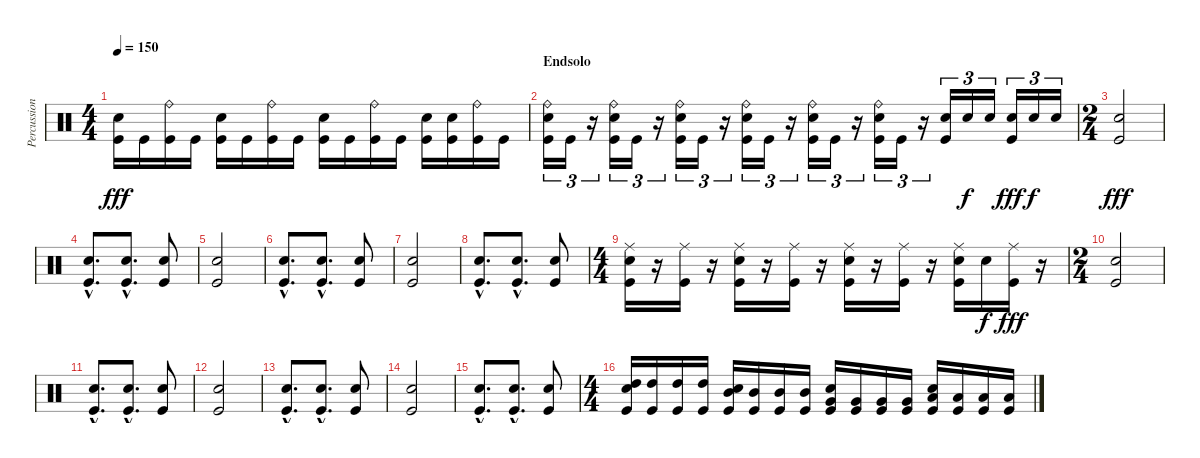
\track ("Percussions" "Percussion") {instrument percussion}
\staff {score}
\articulation defaults
\ts (4 4)
\tempo 150
\clef neutral
\ks c
("Snare (hit) 2" "Kick (hit)").16{dy fff} "Kick (hit)".16 ("Ride (bell)" "Kick (hit)").16 "Kick (hit)".16 ("Snare (hit) 2" "Kick (hit)").16 "Kick (hit)".16 ("Ride (bell)" "Kick (hit)").16 "Kick (hit)".16 ("Snare (hit) 2" "Kick (hit)").16 "Kick (hit)".16 ("Ride (bell)" "Kick (hit)").16 "Kick (hit)".16 ("Snare (hit) 2" "Kick (hit)").16 ("Snare (hit) 2" "Kick (hit)").16 ("Ride (bell)" "Kick (hit)").16 "Kick (hit)".16 |
\section ("" "Endsolo")
("Ride (bell)" "Snare (hit) 2" "Kick (hit)").16{tu (3 2)} "Kick (hit)".16{tu (3 2)} r.16{tu (3 2)} ("Ride (bell)" "Snare (hit) 2" "Kick (hit)").16{tu (3 2)} "Kick (hit)".16{tu (3 2)} r.16{tu (3 2)} ("Ride (bell)" "Snare (hit) 2" "Kick (hit)").16{tu (3 2)} "Kick (hit)".16{tu (3 2)} r.16{tu (3 2)} ("Ride (bell)" "Snare (hit) 2" "Kick (hit)").16{tu (3 2)} "Kick (hit)".16{tu (3 2)} r.16{tu (3 2)} ("Ride (bell)" "Snare (hit) 2" "Kick (hit)").16{tu (3 2)} "Kick (hit)".16{tu (3 2)} r.16{tu (3 2)} ("Ride (bell)" "Snare (hit) 2" "Kick (hit)").16{tu (3 2)} "Kick (hit)".16{tu (3 2)} r.16{tu (3 2)} ("Snare (hit) 2" "Kick (hit)").16{tu (3 2)} "Snare (hit) 2".16{tu (3 2) dy f} "Snare (hit) 2".16{tu (3 2)} ("Snare (hit) 2" "Kick (hit)").16{tu (3 2) dy fff} "Snare (hit) 2".16{tu (3 2) dy f} "Snare (hit) 2".16{tu (3 2)} |
\ts (2 4)
("Snare (hit) 2" "Kick (hit)").2{dy fff} |
("Snare (hit) 2"{hac} "Kick (hit)"{hac}).8{d} ("Snare (hit) 2"{hac} "Kick (hit)"{hac}).8{d} ("Snare (hit) 2" "Kick (hit)").8 |
("Snare (hit) 2" "Kick (hit)").2 |
("Snare (hit) 2"{hac} "Kick (hit)"{hac}).8{d} ("Snare (hit) 2"{hac} "Kick (hit)"{hac}).8{d} ("Snare (hit) 2" "Kick (hit)").8 |
("Snare (hit) 2" "Kick (hit)").2 |
("Snare (hit) 2"{hac} "Kick (hit)"{hac}).8{d} ("Snare (hit) 2"{hac} "Kick (hit)"{hac}).8{d} ("Snare (hit) 2" "Kick (hit)").8 |
\ts (4 4)
("Ride (middle)" "Snare (hit) 2" "Kick (hit)").16 r.16 ("Ride (middle)" "Kick (hit)").16 r.16 ("Ride (middle)" "Snare (hit) 2" "Kick (hit)").16 r.16 ("Ride (middle)" "Kick (hit)").16 r.16 ("Ride (middle)" "Snare (hit) 2" "Kick (hit)").16 r.16 ("Ride (middle)" "Kick (hit)").16 r.16 ("Ride (middle)" "Snare (hit) 2" "Kick (hit)").16 "Snare (hit) 2".16{dy f} ("Ride (middle)" "Kick (hit)").16{dy fff} r.16 |
\ts (2 4)
("Snare (hit) 2" "Kick (hit)").2 |
("Snare (hit) 2"{hac} "Kick (hit)"{hac}).8{d} ("Snare (hit) 2"{hac} "Kick (hit)"{hac}).8{d} ("Snare (hit) 2" "Kick (hit)").8 |
("Snare (hit) 2" "Kick (hit)").2 |
("Snare (hit) 2"{hac} "Kick (hit)"{hac}).8{d} ("Snare (hit) 2"{hac} "Kick (hit)"{hac}).8{d} ("Snare (hit) 2" "Kick (hit)").8 |
("Snare (hit) 2" "Kick (hit)").2 |
("Snare (hit) 2"{hac} "Kick (hit)"{hac}).8{d} ("Snare (hit) 2"{hac} "Kick (hit)"{hac}).8{d} ("Snare (hit) 2" "Kick (hit)").8 |
\ts (4 4)
("High Tom (hit)" "Snare (hit) 2" "Kick (hit)").16 ("High Tom (hit)" "Kick (hit)").16 ("High Tom (hit)" "Kick (hit)").16 ("High Tom (hit)" "Kick (hit)").16 ("Mid Tom (hit)" "Snare (hit) 2" "Kick (hit)").16 ("Mid Tom (hit)" "Kick (hit)").16 ("Mid Tom (hit)" "Kick (hit)").16 ("Mid Tom (hit)" "Kick (hit)").16 ("Very Low Tom (hit)" "Snare (hit) 2" "Kick (hit)").16 ("Very Low Tom (hit)" "Kick (hit)").16 ("Very Low Tom (hit)" "Kick (hit)").16 ("Very Low Tom (hit)" "Kick (hit)").16 ("Low Floor Tom (hit)" "Snare (hit) 2" "Kick (hit)").16 ("Low Floor Tom (hit)" "Kick (hit)").16 ("Low Floor Tom (hit)" "Kick (hit)").16 ("Low Floor Tom (hit)" "Kick (hit)").16
